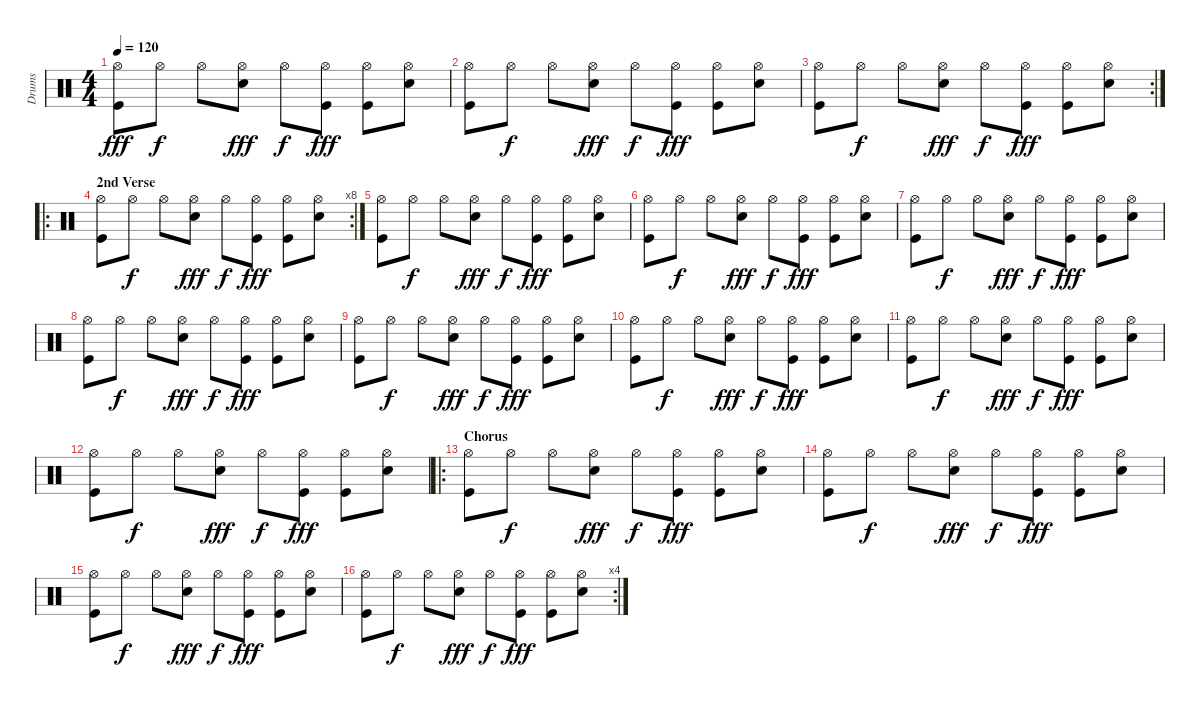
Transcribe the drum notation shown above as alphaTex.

\track ("Drums" "Drums") {instrument percussion}
\staff {score}
\articulation defaults
\ts (4 4)
\tempo 120
\clef neutral
\ks c
("Kick (hit)" "Hi-Hat (open)").8{dy fff} "Hi-Hat (open)".8{dy f} "Hi-Hat (open)".8 ("Snare (hit) 2" "Hi-Hat (open)").8{dy fff} "Hi-Hat (open)".8{dy f} ("Kick (hit)" "Hi-Hat (open)").8{dy fff} ("Kick (hit)" "Hi-Hat (open)").8 ("Snare (hit) 2" "Hi-Hat (open)").8 |
("Kick (hit)" "Hi-Hat (open)").8 "Hi-Hat (open)".8{dy f} "Hi-Hat (open)".8 ("Snare (hit) 2" "Hi-Hat (open)").8{dy fff} "Hi-Hat (open)".8{dy f} ("Kick (hit)" "Hi-Hat (open)").8{dy fff} ("Kick (hit)" "Hi-Hat (open)").8 ("Snare (hit) 2" "Hi-Hat (open)").8 |
\rc 2
("Kick (hit)" "Hi-Hat (open)").8 "Hi-Hat (open)".8{dy f} "Hi-Hat (open)".8 ("Snare (hit) 2" "Hi-Hat (open)").8{dy fff} "Hi-Hat (open)".8{dy f} ("Kick (hit)" "Hi-Hat (open)").8{dy fff} ("Kick (hit)" "Hi-Hat (open)").8 ("Snare (hit) 2" "Hi-Hat (open)").8 |
\ro
\rc 8
\section ("" "2nd Verse")
("Kick (hit)" "Hi-Hat (open)").8 "Hi-Hat (open)".8{dy f} "Hi-Hat (open)".8 ("Snare (hit) 2" "Hi-Hat (open)").8{dy fff} "Hi-Hat (open)".8{dy f} ("Kick (hit)" "Hi-Hat (open)").8{dy fff} ("Kick (hit)" "Hi-Hat (open)").8 ("Snare (hit) 2" "Hi-Hat (open)").8 |
("Kick (hit)" "Hi-Hat (open)").8 "Hi-Hat (open)".8{dy f} "Hi-Hat (open)".8 ("Snare (hit) 2" "Hi-Hat (open)").8{dy fff} "Hi-Hat (open)".8{dy f} ("Kick (hit)" "Hi-Hat (open)").8{dy fff} ("Kick (hit)" "Hi-Hat (open)").8 ("Snare (hit) 2" "Hi-Hat (open)").8 |
("Kick (hit)" "Hi-Hat (open)").8 "Hi-Hat (open)".8{dy f} "Hi-Hat (open)".8 ("Snare (hit) 2" "Hi-Hat (open)").8{dy fff} "Hi-Hat (open)".8{dy f} ("Kick (hit)" "Hi-Hat (open)").8{dy fff} ("Kick (hit)" "Hi-Hat (open)").8 ("Snare (hit) 2" "Hi-Hat (open)").8 |
("Kick (hit)" "Hi-Hat (open)").8 "Hi-Hat (open)".8{dy f} "Hi-Hat (open)".8 ("Snare (hit) 2" "Hi-Hat (open)").8{dy fff} "Hi-Hat (open)".8{dy f} ("Kick (hit)" "Hi-Hat (open)").8{dy fff} ("Kick (hit)" "Hi-Hat (open)").8 ("Snare (hit) 2" "Hi-Hat (open)").8 |
("Kick (hit)" "Hi-Hat (open)").8 "Hi-Hat (open)".8{dy f} "Hi-Hat (open)".8 ("Snare (hit) 2" "Hi-Hat (open)").8{dy fff} "Hi-Hat (open)".8{dy f} ("Kick (hit)" "Hi-Hat (open)").8{dy fff} ("Kick (hit)" "Hi-Hat (open)").8 ("Snare (hit) 2" "Hi-Hat (open)").8 |
("Kick (hit)" "Hi-Hat (open)").8 "Hi-Hat (open)".8{dy f} "Hi-Hat (open)".8 ("Snare (hit) 2" "Hi-Hat (open)").8{dy fff} "Hi-Hat (open)".8{dy f} ("Kick (hit)" "Hi-Hat (open)").8{dy fff} ("Kick (hit)" "Hi-Hat (open)").8 ("Snare (hit) 2" "Hi-Hat (open)").8 |
("Kick (hit)" "Hi-Hat (open)").8 "Hi-Hat (open)".8{dy f} "Hi-Hat (open)".8 ("Snare (hit) 2" "Hi-Hat (open)").8{dy fff} "Hi-Hat (open)".8{dy f} ("Kick (hit)" "Hi-Hat (open)").8{dy fff} ("Kick (hit)" "Hi-Hat (open)").8 ("Snare (hit) 2" "Hi-Hat (open)").8 |
("Kick (hit)" "Hi-Hat (open)").8 "Hi-Hat (open)".8{dy f} "Hi-Hat (open)".8 ("Snare (hit) 2" "Hi-Hat (open)").8{dy fff} "Hi-Hat (open)".8{dy f} ("Kick (hit)" "Hi-Hat (open)").8{dy fff} ("Kick (hit)" "Hi-Hat (open)").8 ("Snare (hit) 2" "Hi-Hat (open)").8 |
("Kick (hit)" "Hi-Hat (open)").8 "Hi-Hat (open)".8{dy f} "Hi-Hat (open)".8 ("Snare (hit) 2" "Hi-Hat (open)").8{dy fff} "Hi-Hat (open)".8{dy f} ("Kick (hit)" "Hi-Hat (open)").8{dy fff} ("Kick (hit)" "Hi-Hat (open)").8 ("Snare (hit) 2" "Hi-Hat (open)").8 |
\ro
\section ("" "Chorus")
("Kick (hit)" "Hi-Hat (open)").8 "Hi-Hat (open)".8{dy f} "Hi-Hat (open)".8 ("Snare (hit) 2" "Hi-Hat (open)").8{dy fff} "Hi-Hat (open)".8{dy f} ("Kick (hit)" "Hi-Hat (open)").8{dy fff} ("Kick (hit)" "Hi-Hat (open)").8 ("Snare (hit) 2" "Hi-Hat (open)").8 |
("Kick (hit)" "Hi-Hat (open)").8 "Hi-Hat (open)".8{dy f} "Hi-Hat (open)".8 ("Snare (hit) 2" "Hi-Hat (open)").8{dy fff} "Hi-Hat (open)".8{dy f} ("Kick (hit)" "Hi-Hat (open)").8{dy fff} ("Kick (hit)" "Hi-Hat (open)").8 ("Snare (hit) 2" "Hi-Hat (open)").8 |
("Kick (hit)" "Hi-Hat (open)").8 "Hi-Hat (open)".8{dy f} "Hi-Hat (open)".8 ("Snare (hit) 2" "Hi-Hat (open)").8{dy fff} "Hi-Hat (open)".8{dy f} ("Kick (hit)" "Hi-Hat (open)").8{dy fff} ("Kick (hit)" "Hi-Hat (open)").8 ("Snare (hit) 2" "Hi-Hat (open)").8 |
\rc 4
("Kick (hit)" "Hi-Hat (open)").8 "Hi-Hat (open)".8{dy f} "Hi-Hat (open)".8 ("Snare (hit) 2" "Hi-Hat (open)").8{dy fff} "Hi-Hat (open)".8{dy f} ("Kick (hit)" "Hi-Hat (open)").8{dy fff} ("Kick (hit)" "Hi-Hat (open)").8 ("Snare (hit) 2" "Hi-Hat (open)").8
